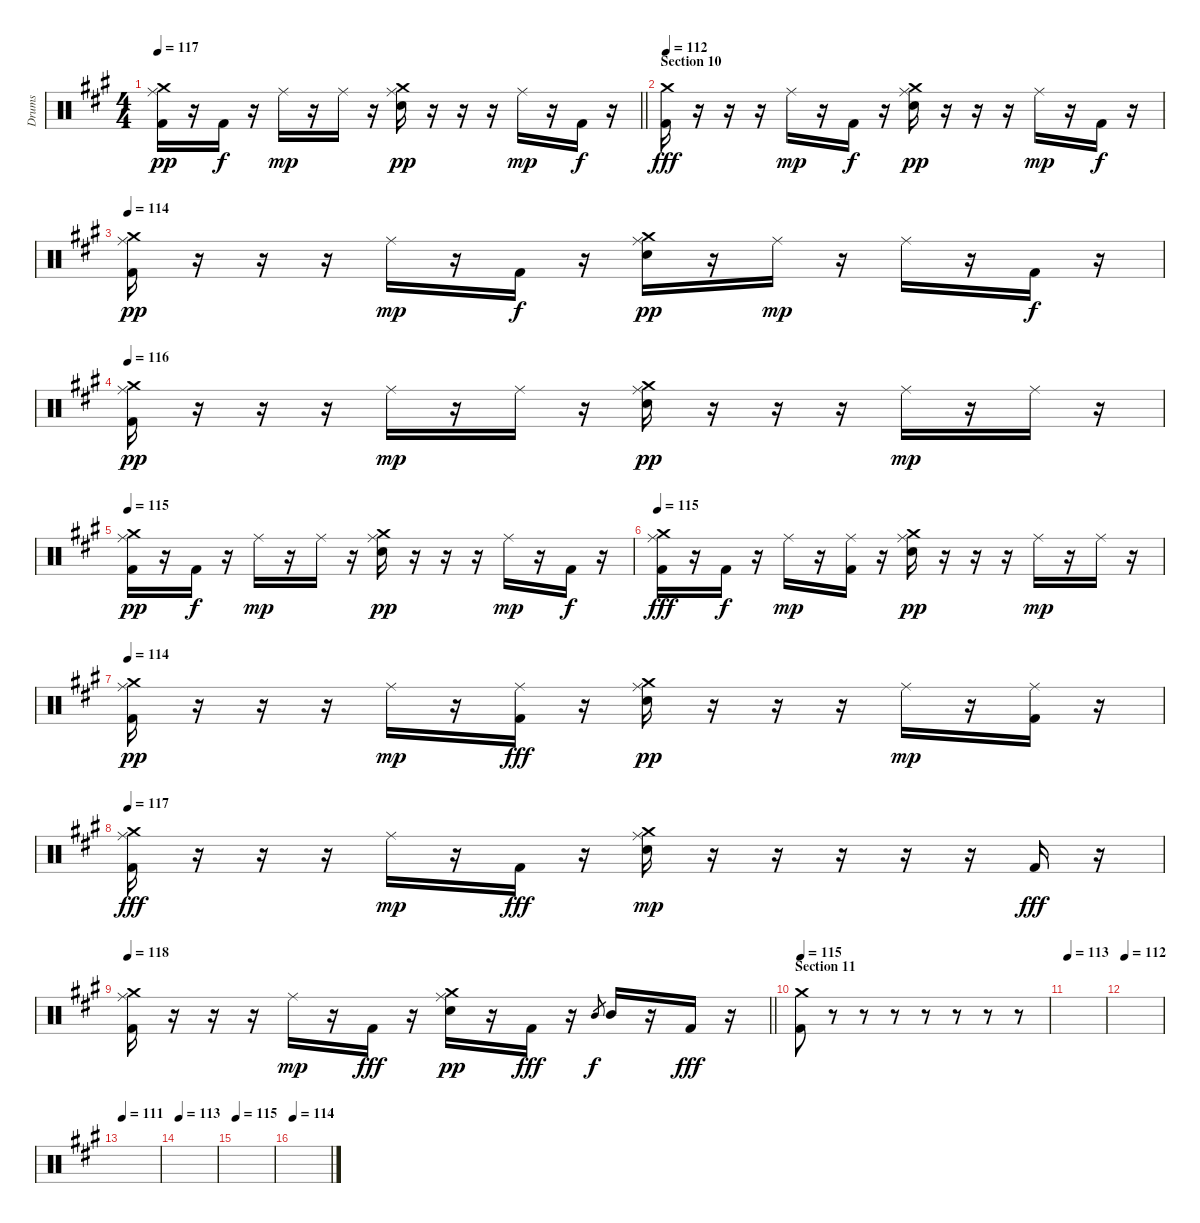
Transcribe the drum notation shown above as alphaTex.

\track ("Drums" "Drums") {instrument percussion}
\staff {score}
\articulation defaults
\ts (4 4)
\tempo 117
\clef neutral
\barLineRight lightlight
\ks f#minor
("Ride (middle)" "Crash medium (hit)" "Kick (hit) 2").16{dy pp} r.16 "Kick (hit) 2".16{dy f} r.16 "Ride (middle)".16{dy mp} r.16 "Ride (middle)".16 r.16 ("Ride (middle)" "Crash medium (hit)" "Electric Snare (hit)").16{dy pp} r.16 r.16 r.16 "Ride (middle)".16{dy mp} r.16 "Kick (hit) 2".16{dy f} r.16 |
\section ("" "Section 10")
\tempo 112
("Crash medium (hit)" "Kick (hit) 2").16{dy fff} r.16 r.16 r.16 "Ride (middle)".16{dy mp} r.16 "Kick (hit) 2".16{dy f} r.16 ("Ride (middle)" "Crash medium (hit)" "Electric Snare (hit)").16{dy pp} r.16 r.16 r.16 "Ride (middle)".16{dy mp} r.16 "Kick (hit) 2".16{dy f} r.16 |
\tempo 114
("Ride (middle)" "Crash medium (hit)" "Kick (hit) 2").16{dy pp} r.16 r.16 r.16 "Ride (middle)".16{dy mp} r.16 "Kick (hit) 2".16{dy f} r.16 ("Ride (middle)" "Crash medium (hit)" "Electric Snare (hit)").16{dy pp} r.16 "Ride (middle)".16{dy mp} r.16 "Ride (middle)".16 r.16 "Kick (hit) 2".16{dy f} r.16 |
\tempo 116
("Ride (middle)" "Crash medium (hit)" "Kick (hit) 2").16{dy pp} r.16 r.16 r.16 "Ride (middle)".16{dy mp} r.16 "Ride (middle)".16 r.16 ("Ride (middle)" "Crash medium (hit)" "Electric Snare (hit)").16{dy pp} r.16 r.16 r.16 "Ride (middle)".16{dy mp} r.16 "Ride (middle)".16 r.16 |
\tempo 115
("Ride (middle)" "Crash medium (hit)" "Kick (hit) 2").16{dy pp} r.16 "Kick (hit) 2".16{dy f} r.16 "Ride (middle)".16{dy mp} r.16 "Ride (middle)".16 r.16 ("Ride (middle)" "Crash medium (hit)" "Electric Snare (hit)").16{dy pp} r.16 r.16 r.16 "Ride (middle)".16{dy mp} r.16 "Kick (hit) 2".16{dy f} r.16 |
\tempo 115
("Ride (middle)" "Crash medium (hit)" "Kick (hit) 2").16{dy fff} r.16 "Kick (hit) 2".16{dy f} r.16 "Ride (middle)".16{dy mp} r.16 ("Ride (middle)" "Kick (hit) 2").16 r.16 ("Ride (middle)" "Crash medium (hit)" "Electric Snare (hit)").16{dy pp} r.16 r.16 r.16 "Ride (middle)".16{dy mp} r.16 "Ride (middle)".16 r.16 |
\tempo 114
("Ride (middle)" "Crash medium (hit)" "Kick (hit) 2").16{dy pp} r.16 r.16 r.16 "Ride (middle)".16{dy mp} r.16 ("Ride (middle)" "Kick (hit) 2").16{dy fff} r.16 ("Ride (middle)" "Crash medium (hit)" "Electric Snare (hit)").16{dy pp} r.16 r.16 r.16 "Ride (middle)".16{dy mp} r.16 ("Ride (middle)" "Kick (hit) 2").16 r.16 |
\tempo 117
("Ride (middle)" "Crash medium (hit)" "Kick (hit) 2").16{dy fff} r.16 r.16 r.16 "Ride (middle)".16{dy mp} r.16 "Kick (hit) 2".16{dy fff} r.16 ("Ride (middle)" "Crash medium (hit)" "Electric Snare (hit)").16{dy mp} r.16 r.16 r.16 r.16 r.16 "Kick (hit) 2".16{dy fff} r.16 |
\tempo 118
\barLineRight lightlight
("Ride (middle)" "Crash medium (hit)" "Kick (hit) 2").16 r.16 r.16 r.16 "Ride (middle)".16{dy mp} r.16 "Kick (hit) 2".16{dy fff} r.16 ("Ride (middle)" "Crash medium (hit)" "Electric Snare (hit)").16{dy pp} r.16 "Kick (hit) 2".16{dy fff} r.16 "Mid Tom (hit)".8{gr dy f} "Mid Tom (hit)".16 r.16 "Kick (hit) 2".16{dy fff} r.16 |
\section ("" "Section 11")
\tempo 115
("Crash medium (hit)" "Kick (hit) 2").8 r.8 r.8 r.8 r.8 r.8 r.8 r.8 |
\tempo 113
|
\tempo 112
|
\tempo 111
|
\tempo 113
|
\tempo 115
|
\tempo 114
